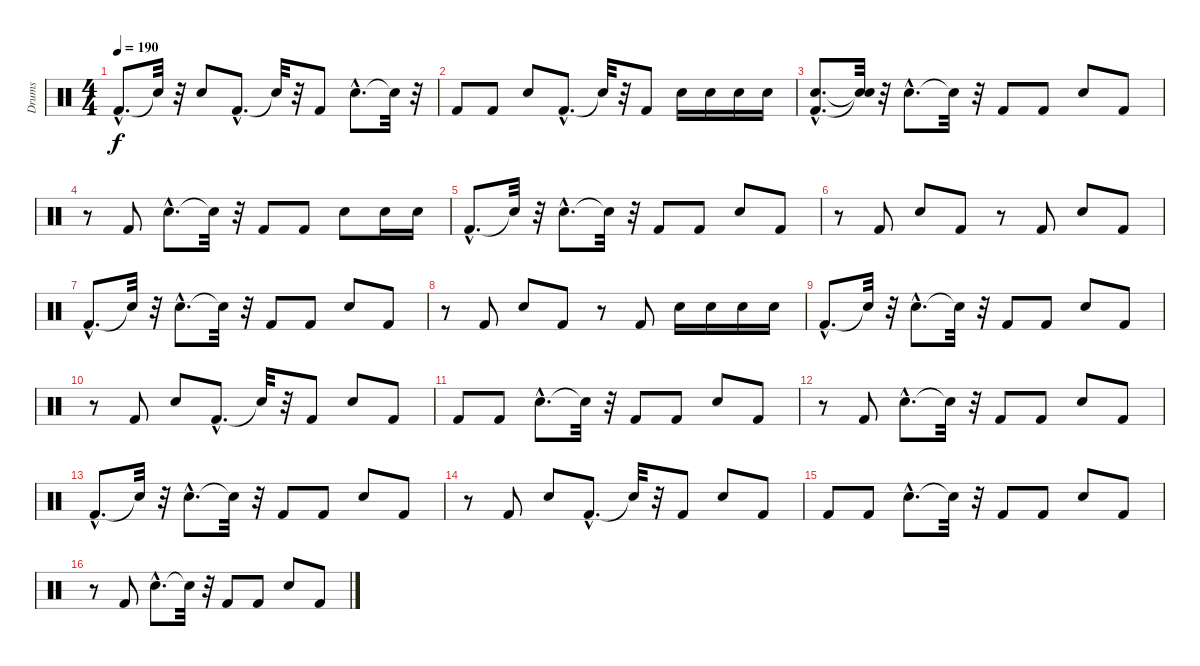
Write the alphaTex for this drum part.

\track ("Drums" "Drums") {instrument percussion}
\staff {score}
\articulation defaults
\ts (4 4)
\tempo 190
\clef neutral
\ks c "Kick (hit) 2"{hac}.8{d dy f} "Snare (hit)"{t}.32
r.32 "Electric Snare (hit)".8 "Kick (hit) 2"{hac}.8{d} "Snare (hit)"{t}.32 r.32 "Kick (hit) 2".8 "Electric Snare (hit)"{hac}.8{d} "Snare (hit)"{t}.32 r.32 |
"Kick (hit) 2".8 "Kick (hit) 2".8 "Electric Snare (hit)".8 "Kick (hit) 2"{hac}.8{d} "Snare (hit)"{t}.32 r.32 "Kick (hit) 2".8 "Electric Snare (hit)".16 "Electric Snare (hit)".16 "Electric Snare (hit)".16 "Electric Snare (hit)".16 |
("Kick (hit) 2"{hac} "Electric Snare (hit)"{hac}).8{d} ("Snare (hit)"{t} "Snare (hit)"{t}).32 r.32 "Electric Snare (hit)"{hac}.8{d} "Snare (hit)"{t}.32 r.32 "Kick (hit) 2".8 "Kick (hit) 2".8 "Electric Snare (hit)".8 "Kick (hit) 2".8 |
r.8 "Kick (hit) 2".8 "Electric Snare (hit)"{hac}.8{d} "Snare (hit)"{t}.32 r.32 "Kick (hit) 2".8 "Kick (hit) 2".8 "Electric Snare (hit)".8 "Electric Snare (hit)".16 "Electric Snare (hit)".16 |
"Kick (hit) 2"{hac}.8{d} "Snare (hit)"{t}.32 r.32 "Electric Snare (hit)"{hac}.8{d} "Snare (hit)"{t}.32 r.32 "Kick (hit) 2".8 "Kick (hit) 2".8 "Electric Snare (hit)".8 "Kick (hit) 2".8 |
r.8 "Kick (hit) 2".8 "Electric Snare (hit)".8 "Kick (hit) 2".8 r.8 "Kick (hit) 2".8 "Electric Snare (hit)".8 "Kick (hit) 2".8 |
"Kick (hit) 2"{hac}.8{d} "Snare (hit)"{t}.32 r.32 "Electric Snare (hit)"{hac}.8{d} "Snare (hit)"{t}.32 r.32 "Kick (hit) 2".8 "Kick (hit) 2".8 "Electric Snare (hit)".8 "Kick (hit) 2".8 |
r.8 "Kick (hit) 2".8 "Electric Snare (hit)".8 "Kick (hit) 2".8 r.8 "Kick (hit) 2".8 "Electric Snare (hit)".16 "Electric Snare (hit)".16 "Electric Snare (hit)".16 "Electric Snare (hit)".16 |
"Kick (hit) 2"{hac}.8{d} "Snare (hit)"{t}.32 r.32 "Electric Snare (hit)"{hac}.8{d} "Snare (hit)"{t}.32 r.32 "Kick (hit) 2".8 "Kick (hit) 2".8 "Electric Snare (hit)".8 "Kick (hit) 2".8 |
r.8 "Kick (hit) 2".8 "Electric Snare (hit)".8 "Kick (hit) 2"{hac}.8{d} "Snare (hit)"{t}.32 r.32 "Kick (hit) 2".8 "Electric Snare (hit)".8 "Kick (hit) 2".8 |
"Kick (hit) 2".8 "Kick (hit) 2".8 "Electric Snare (hit)"{hac}.8{d} "Snare (hit)"{t}.32 r.32 "Kick (hit) 2".8 "Kick (hit) 2".8 "Electric Snare (hit)".8 "Kick (hit) 2".8 |
r.8 "Kick (hit) 2".8 "Electric Snare (hit)"{hac}.8{d} "Snare (hit)"{t}.32 r.32 "Kick (hit) 2".8 "Kick (hit) 2".8 "Electric Snare (hit)".8 "Kick (hit) 2".8 |
"Kick (hit) 2"{hac}.8{d} "Snare (hit)"{t}.32 r.32 "Electric Snare (hit)"{hac}.8{d} "Snare (hit)"{t}.32 r.32 "Kick (hit) 2".8 "Kick (hit) 2".8 "Electric Snare (hit)".8 "Kick (hit) 2".8 |
r.8 "Kick (hit) 2".8 "Electric Snare (hit)".8 "Kick (hit) 2"{hac}.8{d} "Snare (hit)"{t}.32 r.32 "Kick (hit) 2".8 "Electric Snare (hit)".8 "Kick (hit) 2".8 |
"Kick (hit) 2".8 "Kick (hit) 2".8 "Electric Snare (hit)"{hac}.8{d} "Snare (hit)"{t}.32 r.32 "Kick (hit) 2".8 "Kick (hit) 2".8 "Electric Snare (hit)".8 "Kick (hit) 2".8 |
r.8 "Kick (hit) 2".8 "Electric Snare (hit)"{hac}.8{d} "Snare (hit)"{t}.32 r.32 "Kick (hit) 2".8 "Kick (hit) 2".8 "Electric Snare (hit)".8 "Kick (hit) 2".8
